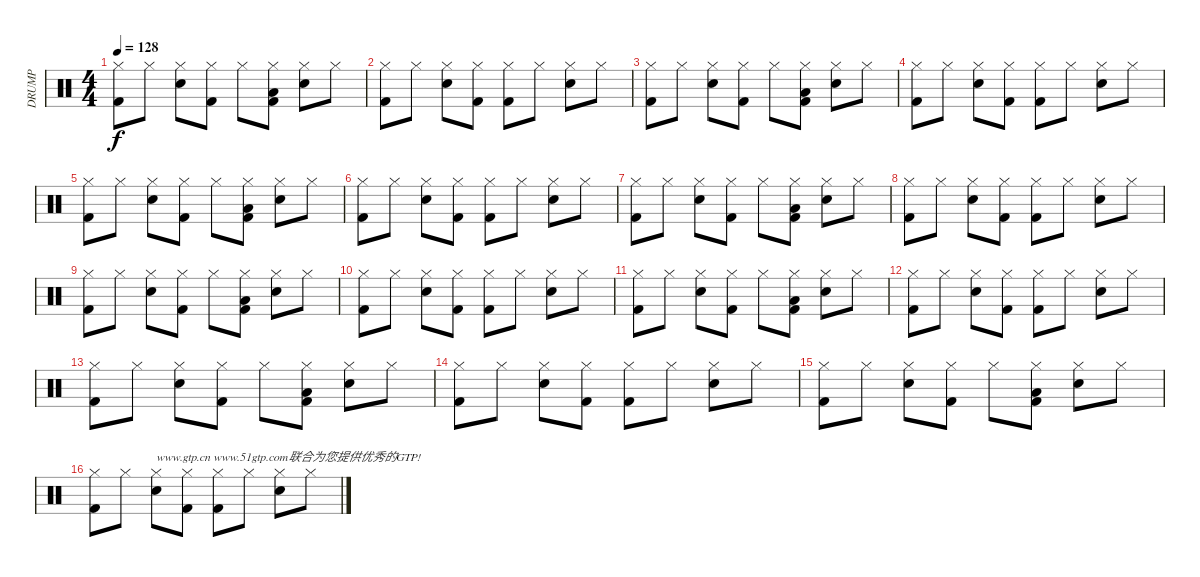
\track ("DRUMP" "DRUMP") {instrument percussion}
\staff {score}
\articulation defaults
\ts (4 4)
\tempo 128
\clef neutral
\ks c
("Hi-Hat (closed)" "Kick (hit) 2").8{dy f} "Hi-Hat (closed)".8 ("Hi-Hat (closed)" "Snare (hit) 2").8 ("Hi-Hat (closed)" "Kick (hit) 2").8 "Hi-Hat (closed)".8 ("Hi-Hat (closed)" "Low Floor Tom (hit)" "Kick (hit) 2").8 ("Hi-Hat (closed)" "Snare (hit) 2").8 "Hi-Hat (closed)".8 |
("Hi-Hat (closed)" "Kick (hit) 2").8 "Hi-Hat (closed)".8 ("Hi-Hat (closed)" "Snare (hit) 2").8 ("Hi-Hat (closed)" "Kick (hit) 2").8 ("Hi-Hat (closed)" "Kick (hit) 2").8 "Hi-Hat (closed)".8 ("Hi-Hat (closed)" "Snare (hit) 2").8 "Hi-Hat (closed)".8 |
("Hi-Hat (closed)" "Kick (hit) 2").8 "Hi-Hat (closed)".8 ("Hi-Hat (closed)" "Snare (hit) 2").8 ("Hi-Hat (closed)" "Kick (hit) 2").8 "Hi-Hat (closed)".8 ("Hi-Hat (closed)" "Low Floor Tom (hit)" "Kick (hit) 2").8 ("Hi-Hat (closed)" "Snare (hit) 2").8 "Hi-Hat (closed)".8 |
("Hi-Hat (closed)" "Kick (hit) 2").8 "Hi-Hat (closed)".8 ("Hi-Hat (closed)" "Snare (hit) 2").8 ("Hi-Hat (closed)" "Kick (hit) 2").8 ("Hi-Hat (closed)" "Kick (hit) 2").8 "Hi-Hat (closed)".8 ("Hi-Hat (closed)" "Snare (hit) 2").8 "Hi-Hat (closed)".8 |
("Hi-Hat (closed)" "Kick (hit) 2").8 "Hi-Hat (closed)".8 ("Hi-Hat (closed)" "Snare (hit) 2").8 ("Hi-Hat (closed)" "Kick (hit) 2").8 "Hi-Hat (closed)".8 ("Hi-Hat (closed)" "Low Floor Tom (hit)" "Kick (hit) 2").8 ("Hi-Hat (closed)" "Snare (hit) 2").8 "Hi-Hat (closed)".8 |
("Hi-Hat (closed)" "Kick (hit) 2").8 "Hi-Hat (closed)".8 ("Hi-Hat (closed)" "Snare (hit) 2").8 ("Hi-Hat (closed)" "Kick (hit) 2").8 ("Hi-Hat (closed)" "Kick (hit) 2").8 "Hi-Hat (closed)".8 ("Hi-Hat (closed)" "Snare (hit) 2").8 "Hi-Hat (closed)".8 |
("Hi-Hat (closed)" "Kick (hit) 2").8 "Hi-Hat (closed)".8 ("Hi-Hat (closed)" "Snare (hit) 2").8 ("Hi-Hat (closed)" "Kick (hit) 2").8 "Hi-Hat (closed)".8 ("Hi-Hat (closed)" "Low Floor Tom (hit)" "Kick (hit) 2").8 ("Hi-Hat (closed)" "Snare (hit) 2").8 "Hi-Hat (closed)".8 |
("Hi-Hat (closed)" "Kick (hit) 2").8 "Hi-Hat (closed)".8 ("Hi-Hat (closed)" "Snare (hit) 2").8 ("Hi-Hat (closed)" "Kick (hit) 2").8 ("Hi-Hat (closed)" "Kick (hit) 2").8 "Hi-Hat (closed)".8 ("Hi-Hat (closed)" "Snare (hit) 2").8 "Hi-Hat (closed)".8 |
("Hi-Hat (closed)" "Kick (hit) 2").8 "Hi-Hat (closed)".8 ("Hi-Hat (closed)" "Snare (hit) 2").8 ("Hi-Hat (closed)" "Kick (hit) 2").8 "Hi-Hat (closed)".8 ("Hi-Hat (closed)" "Low Floor Tom (hit)" "Kick (hit) 2").8 ("Hi-Hat (closed)" "Snare (hit) 2").8 "Hi-Hat (closed)".8 |
("Hi-Hat (closed)" "Kick (hit) 2").8 "Hi-Hat (closed)".8 ("Hi-Hat (closed)" "Snare (hit) 2").8 ("Hi-Hat (closed)" "Kick (hit) 2").8 ("Hi-Hat (closed)" "Kick (hit) 2").8 "Hi-Hat (closed)".8 ("Hi-Hat (closed)" "Snare (hit) 2").8 "Hi-Hat (closed)".8 |
("Hi-Hat (closed)" "Kick (hit) 2").8 "Hi-Hat (closed)".8 ("Hi-Hat (closed)" "Snare (hit) 2").8 ("Hi-Hat (closed)" "Kick (hit) 2").8 "Hi-Hat (closed)".8 ("Hi-Hat (closed)" "Low Floor Tom (hit)" "Kick (hit) 2").8 ("Hi-Hat (closed)" "Snare (hit) 2").8 "Hi-Hat (closed)".8 |
("Hi-Hat (closed)" "Kick (hit) 2").8 "Hi-Hat (closed)".8 ("Hi-Hat (closed)" "Snare (hit) 2").8 ("Hi-Hat (closed)" "Kick (hit) 2").8 ("Hi-Hat (closed)" "Kick (hit) 2").8 "Hi-Hat (closed)".8 ("Hi-Hat (closed)" "Snare (hit) 2").8 "Hi-Hat (closed)".8 |
("Hi-Hat (closed)" "Kick (hit) 2").8 "Hi-Hat (closed)".8 ("Hi-Hat (closed)" "Snare (hit) 2").8 ("Hi-Hat (closed)" "Kick (hit) 2").8 "Hi-Hat (closed)".8 ("Hi-Hat (closed)" "Low Floor Tom (hit)" "Kick (hit) 2").8 ("Hi-Hat (closed)" "Snare (hit) 2").8 "Hi-Hat (closed)".8 |
("Hi-Hat (closed)" "Kick (hit) 2").8 "Hi-Hat (closed)".8 ("Hi-Hat (closed)" "Snare (hit) 2").8 ("Hi-Hat (closed)" "Kick (hit) 2").8 ("Hi-Hat (closed)" "Kick (hit) 2").8 "Hi-Hat (closed)".8 ("Hi-Hat (closed)" "Snare (hit) 2").8 "Hi-Hat (closed)".8 |
("Hi-Hat (closed)" "Kick (hit) 2").8 "Hi-Hat (closed)".8 ("Hi-Hat (closed)" "Snare (hit) 2").8 ("Hi-Hat (closed)" "Kick (hit) 2").8 "Hi-Hat (closed)".8 ("Hi-Hat (closed)" "Low Floor Tom (hit)" "Kick (hit) 2").8 ("Hi-Hat (closed)" "Snare (hit) 2").8 "Hi-Hat (closed)".8 |
("Hi-Hat (closed)" "Kick (hit) 2").8 "Hi-Hat (closed)".8 ("Hi-Hat (closed)" "Snare (hit) 2").8{txt "www.gtp.cn www.51gtp.com联合为您提供优秀的GTP!"} ("Hi-Hat (closed)" "Kick (hit) 2").8 ("Hi-Hat (closed)" "Kick (hit) 2").8 "Hi-Hat (closed)".8 ("Hi-Hat (closed)" "Snare (hit) 2").8 "Hi-Hat (closed)".8
